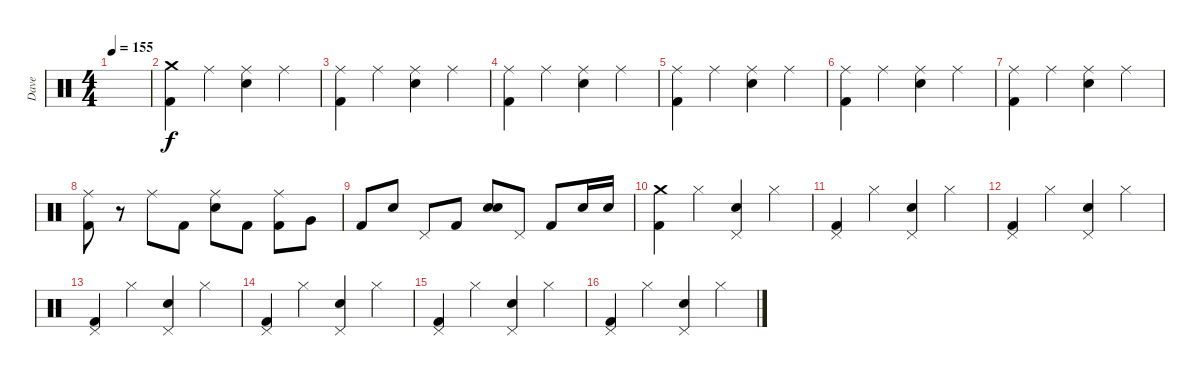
\track ("Dave" "Dave") {instrument percussion}
\staff {score}
\articulation defaults
\ts (4 4)
\tempo 155
\clef neutral
\ks c
|
("Crash medium (hit)" "Kick (hit) 2").4 "Ride (middle)".4 ("Ride (middle)" "Snare (hit) 2").4 "Ride (middle)".4 |
("Ride (middle)" "Kick (hit) 2").4 "Ride (middle)".4 ("Ride (middle)" "Snare (hit) 2").4 "Ride (middle)".4 |
("Ride (middle)" "Kick (hit) 2").4 "Ride (middle)".4 ("Ride (middle)" "Snare (hit) 2").4 "Ride (middle)".4 |
("Ride (middle)" "Kick (hit) 2").4 "Ride (middle)".4 ("Ride (middle)" "Snare (hit) 2").4 "Ride (middle)".4 |
("Ride (middle)" "Kick (hit) 2").4 "Ride (middle)".4 ("Ride (middle)" "Snare (hit) 2").4 "Ride (middle)".4 |
("Ride (middle)" "Kick (hit) 2").4 "Ride (middle)".4 ("Ride (middle)" "Snare (hit) 2").4 "Ride (middle)".4 |
("Ride (middle)" "Kick (hit) 2").8 r.8 "Ride (middle)".8 "Kick (hit) 2".8 ("Ride (middle)" "Snare (hit) 2").8 "Kick (hit) 2".8 ("Ride (middle)" "Kick (hit) 2").8 "Very Low Tom (hit)".8 |
"Kick (hit) 2".8 "Snare (hit) 2".8 "Pedal Hi-Hat (hit)".8 "Kick (hit) 2".8 ("Snare (hit) 2" "Snare (hit) 2").8{bd 480} "Pedal Hi-Hat (hit)".8 "Kick (hit) 2".8 "Snare (hit) 2".16 "Snare (hit) 2".16 |
("Crash medium (hit)" "Kick (hit) 2").4 "Hi-Hat (closed)".4 ("Pedal Hi-Hat (hit)" "Snare (hit) 2").4 "Hi-Hat (closed)".4 |
("Pedal Hi-Hat (hit)" "Kick (hit) 2").4 "Hi-Hat (closed)".4 ("Pedal Hi-Hat (hit)" "Snare (hit) 2").4 "Hi-Hat (closed)".4 |
("Pedal Hi-Hat (hit)" "Kick (hit) 2").4 "Hi-Hat (closed)".4 ("Pedal Hi-Hat (hit)" "Snare (hit) 2").4 "Hi-Hat (closed)".4 |
("Pedal Hi-Hat (hit)" "Kick (hit) 2").4 "Hi-Hat (closed)".4 ("Pedal Hi-Hat (hit)" "Snare (hit) 2").4 "Hi-Hat (closed)".4 |
("Pedal Hi-Hat (hit)" "Kick (hit) 2").4 "Hi-Hat (closed)".4 ("Pedal Hi-Hat (hit)" "Snare (hit) 2").4 "Hi-Hat (closed)".4 |
("Pedal Hi-Hat (hit)" "Kick (hit) 2").4 "Hi-Hat (closed)".4 ("Pedal Hi-Hat (hit)" "Snare (hit) 2").4 "Hi-Hat (closed)".4 |
("Pedal Hi-Hat (hit)" "Kick (hit) 2").4 "Hi-Hat (closed)".4 ("Pedal Hi-Hat (hit)" "Snare (hit) 2").4 "Hi-Hat (closed)".4
